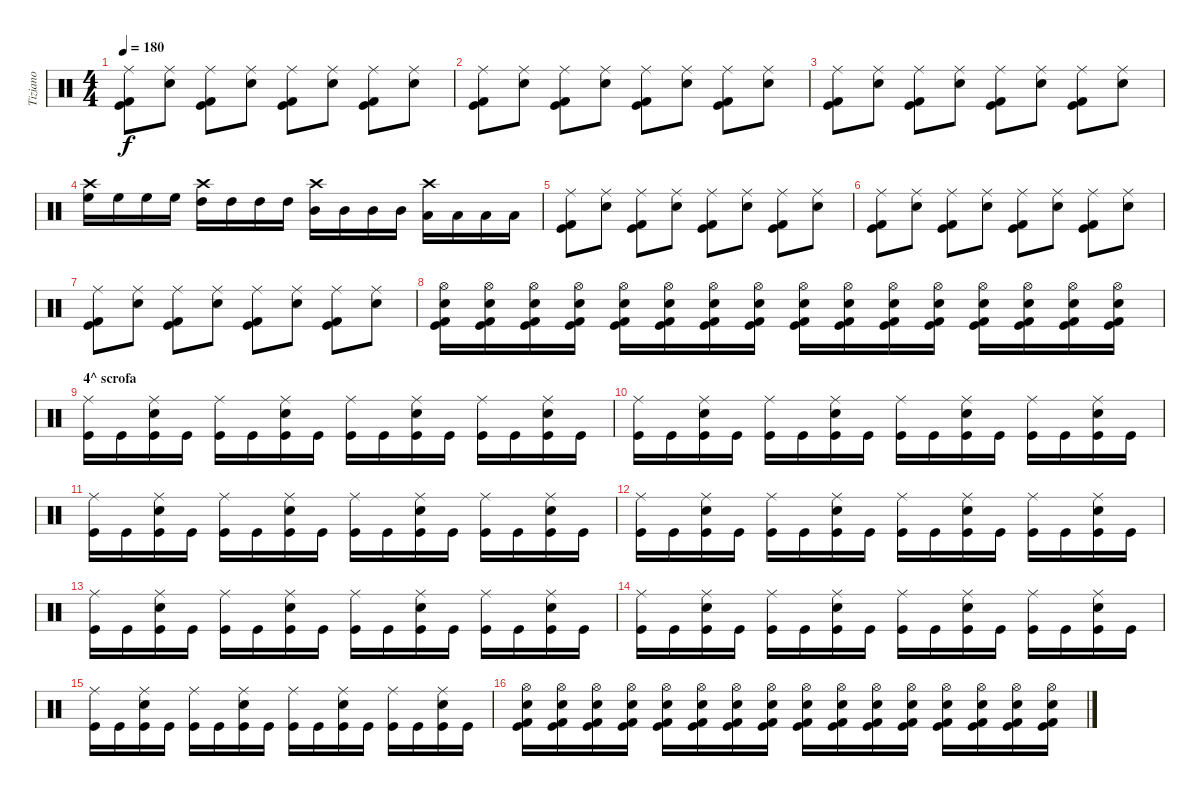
\track ("Tiziano" "Tiziano") {instrument percussion}
\staff {score}
\articulation defaults
\ts (4 4)
\tempo 180
\clef neutral
\ks c
("Kick (hit)" "Kick (hit) 2" "Ride (middle)").8{dy f} ("Snare (hit) 2" "Ride (middle)").8 ("Kick (hit)" "Kick (hit) 2" "Ride (middle)").8 ("Snare (hit) 2" "Ride (middle)").8 ("Kick (hit)" "Kick (hit) 2" "Ride (middle)").8 ("Snare (hit) 2" "Ride (middle)").8 ("Kick (hit)" "Kick (hit) 2" "Ride (middle)").8 ("Snare (hit) 2" "Ride (middle)").8 |
("Kick (hit)" "Kick (hit) 2" "Ride (middle)").8 ("Snare (hit) 2" "Ride (middle)").8 ("Kick (hit)" "Kick (hit) 2" "Ride (middle)").8 ("Snare (hit) 2" "Ride (middle)").8 ("Kick (hit)" "Kick (hit) 2" "Ride (middle)").8 ("Snare (hit) 2" "Ride (middle)").8 ("Kick (hit)" "Kick (hit) 2" "Ride (middle)").8 ("Snare (hit) 2" "Ride (middle)").8 |
("Kick (hit)" "Kick (hit) 2" "Ride (middle)").8 ("Snare (hit) 2" "Ride (middle)").8 ("Kick (hit)" "Kick (hit) 2" "Ride (middle)").8 ("Snare (hit) 2" "Ride (middle)").8 ("Kick (hit)" "Kick (hit) 2" "Ride (middle)").8 ("Snare (hit) 2" "Ride (middle)").8 ("Kick (hit)" "Kick (hit) 2" "Ride (middle)").8 ("Snare (hit) 2" "Ride (middle)").8 |
("High Floor Tom (hit)" "Crash high (hit)").16 "High Floor Tom (hit)".16 "High Floor Tom (hit)".16 "High Floor Tom (hit)".16 ("High Tom (hit)" "Crash high (hit)").16 "High Tom (hit)".16 "High Tom (hit)".16 "High Tom (hit)".16 ("Mid Tom (hit)" "Crash high (hit)").16 "Mid Tom (hit)".16 "Mid Tom (hit)".16 "Mid Tom (hit)".16 ("Low Tom (hit)" "Crash high (hit)").16 "Low Tom (hit)".16 "Low Tom (hit)".16 "Low Tom (hit)".16 |
("Kick (hit)" "Kick (hit) 2" "Ride (middle)").8 ("Snare (hit) 2" "Ride (middle)").8 ("Kick (hit)" "Kick (hit) 2" "Ride (middle)").8 ("Snare (hit) 2" "Ride (middle)").8 ("Kick (hit)" "Kick (hit) 2" "Ride (middle)").8 ("Snare (hit) 2" "Ride (middle)").8 ("Kick (hit)" "Kick (hit) 2" "Ride (middle)").8 ("Snare (hit) 2" "Ride (middle)").8 |
("Kick (hit)" "Kick (hit) 2" "Ride (middle)").8 ("Snare (hit) 2" "Ride (middle)").8 ("Kick (hit)" "Kick (hit) 2" "Ride (middle)").8 ("Snare (hit) 2" "Ride (middle)").8 ("Kick (hit)" "Kick (hit) 2" "Ride (middle)").8 ("Snare (hit) 2" "Ride (middle)").8 ("Kick (hit)" "Kick (hit) 2" "Ride (middle)").8 ("Snare (hit) 2" "Ride (middle)").8 |
("Kick (hit)" "Kick (hit) 2" "Ride (middle)").8 ("Snare (hit) 2" "Ride (middle)").8 ("Kick (hit)" "Kick (hit) 2" "Ride (middle)").8 ("Snare (hit) 2" "Ride (middle)").8 ("Kick (hit)" "Kick (hit) 2" "Ride (middle)").8 ("Snare (hit) 2" "Ride (middle)").8 ("Kick (hit)" "Kick (hit) 2" "Ride (middle)").8 ("Snare (hit) 2" "Ride (middle)").8 |
("Hi-Hat (open)" "Kick (hit)" "Kick (hit) 2" "Snare (hit) 2").16 ("Hi-Hat (open)" "Kick (hit)" "Kick (hit) 2" "Snare (hit) 2").16 ("Hi-Hat (open)" "Kick (hit)" "Kick (hit) 2" "Snare (hit) 2").16 ("Hi-Hat (open)" "Kick (hit)" "Kick (hit) 2" "Snare (hit) 2").16 ("Hi-Hat (open)" "Kick (hit)" "Kick (hit) 2" "Snare (hit) 2").16 ("Hi-Hat (open)" "Kick (hit)" "Kick (hit) 2" "Snare (hit) 2").16 ("Hi-Hat (open)" "Kick (hit)" "Kick (hit) 2" "Snare (hit) 2").16 ("Hi-Hat (open)" "Kick (hit)" "Kick (hit) 2" "Snare (hit) 2").16 ("Hi-Hat (open)" "Kick (hit)" "Kick (hit) 2" "Snare (hit) 2").16 ("Hi-Hat (open)" "Kick (hit)" "Kick (hit) 2" "Snare (hit) 2").16 ("Hi-Hat (open)" "Kick (hit)" "Kick (hit) 2" "Snare (hit) 2").16 ("Hi-Hat (open)" "Kick (hit)" "Kick (hit) 2" "Snare (hit) 2").16 ("Hi-Hat (open)" "Kick (hit)" "Kick (hit) 2" "Snare (hit) 2").16 ("Hi-Hat (open)" "Kick (hit)" "Kick (hit) 2" "Snare (hit) 2").16 ("Hi-Hat (open)" "Kick (hit)" "Kick (hit) 2" "Snare (hit) 2").16 ("Hi-Hat (open)" "Kick (hit)" "Kick (hit) 2" "Snare (hit) 2").16 |
\section ("" "4^ scrofa")
("Kick (hit)" "Ride (middle)").16 "Kick (hit)".16 ("Kick (hit)" "Snare (hit) 2" "Ride (middle)").16 "Kick (hit)".16 ("Kick (hit)" "Ride (middle)").16 "Kick (hit)".16 ("Kick (hit)" "Snare (hit) 2" "Ride (middle)").16 "Kick (hit)".16 ("Kick (hit)" "Ride (middle)").16 "Kick (hit)".16 ("Kick (hit)" "Snare (hit) 2" "Ride (middle)").16 "Kick (hit)".16 ("Kick (hit)" "Ride (middle)").16 "Kick (hit)".16 ("Kick (hit)" "Snare (hit) 2" "Ride (middle)").16 "Kick (hit)".16 |
("Kick (hit)" "Ride (middle)").16 "Kick (hit)".16 ("Kick (hit)" "Snare (hit) 2" "Ride (middle)").16 "Kick (hit)".16 ("Kick (hit)" "Ride (middle)").16 "Kick (hit)".16 ("Kick (hit)" "Snare (hit) 2" "Ride (middle)").16 "Kick (hit)".16 ("Kick (hit)" "Ride (middle)").16 "Kick (hit)".16 ("Kick (hit)" "Snare (hit) 2" "Ride (middle)").16 "Kick (hit)".16 ("Kick (hit)" "Ride (middle)").16 "Kick (hit)".16 ("Kick (hit)" "Snare (hit) 2" "Ride (middle)").16 "Kick (hit)".16 |
("Kick (hit)" "Ride (middle)").16 "Kick (hit)".16 ("Kick (hit)" "Snare (hit) 2" "Ride (middle)").16 "Kick (hit)".16 ("Kick (hit)" "Ride (middle)").16 "Kick (hit)".16 ("Kick (hit)" "Snare (hit) 2" "Ride (middle)").16 "Kick (hit)".16 ("Kick (hit)" "Ride (middle)").16 "Kick (hit)".16 ("Kick (hit)" "Snare (hit) 2" "Ride (middle)").16 "Kick (hit)".16 ("Kick (hit)" "Ride (middle)").16 "Kick (hit)".16 ("Kick (hit)" "Snare (hit) 2" "Ride (middle)").16 "Kick (hit)".16 |
("Kick (hit)" "Ride (middle)").16 "Kick (hit)".16 ("Kick (hit)" "Snare (hit) 2" "Ride (middle)").16 "Kick (hit)".16 ("Kick (hit)" "Ride (middle)").16 "Kick (hit)".16 ("Kick (hit)" "Snare (hit) 2" "Ride (middle)").16 "Kick (hit)".16 ("Kick (hit)" "Ride (middle)").16 "Kick (hit)".16 ("Kick (hit)" "Snare (hit) 2" "Ride (middle)").16 "Kick (hit)".16 ("Kick (hit)" "Ride (middle)").16 "Kick (hit)".16 ("Kick (hit)" "Snare (hit) 2" "Ride (middle)").16 "Kick (hit)".16 |
("Kick (hit)" "Ride (middle)").16 "Kick (hit)".16 ("Kick (hit)" "Snare (hit) 2" "Ride (middle)").16 "Kick (hit)".16 ("Kick (hit)" "Ride (middle)").16 "Kick (hit)".16 ("Kick (hit)" "Snare (hit) 2" "Ride (middle)").16 "Kick (hit)".16 ("Kick (hit)" "Ride (middle)").16 "Kick (hit)".16 ("Kick (hit)" "Snare (hit) 2" "Ride (middle)").16 "Kick (hit)".16 ("Kick (hit)" "Ride (middle)").16 "Kick (hit)".16 ("Kick (hit)" "Snare (hit) 2" "Ride (middle)").16 "Kick (hit)".16 |
("Kick (hit)" "Ride (middle)").16 "Kick (hit)".16 ("Kick (hit)" "Snare (hit) 2" "Ride (middle)").16 "Kick (hit)".16 ("Kick (hit)" "Ride (middle)").16 "Kick (hit)".16 ("Kick (hit)" "Snare (hit) 2" "Ride (middle)").16 "Kick (hit)".16 ("Kick (hit)" "Ride (middle)").16 "Kick (hit)".16 ("Kick (hit)" "Snare (hit) 2" "Ride (middle)").16 "Kick (hit)".16 ("Kick (hit)" "Ride (middle)").16 "Kick (hit)".16 ("Kick (hit)" "Snare (hit) 2" "Ride (middle)").16 "Kick (hit)".16 |
("Kick (hit)" "Ride (middle)").16 "Kick (hit)".16 ("Kick (hit)" "Snare (hit) 2" "Ride (middle)").16 "Kick (hit)".16 ("Kick (hit)" "Ride (middle)").16 "Kick (hit)".16 ("Kick (hit)" "Snare (hit) 2" "Ride (middle)").16 "Kick (hit)".16 ("Kick (hit)" "Ride (middle)").16 "Kick (hit)".16 ("Kick (hit)" "Snare (hit) 2" "Ride (middle)").16 "Kick (hit)".16 ("Kick (hit)" "Ride (middle)").16 "Kick (hit)".16 ("Kick (hit)" "Snare (hit) 2" "Ride (middle)").16 "Kick (hit)".16 |
("Hi-Hat (open)" "Kick (hit)" "Kick (hit) 2" "Snare (hit) 2").16 ("Hi-Hat (open)" "Kick (hit)" "Kick (hit) 2" "Snare (hit) 2").16 ("Hi-Hat (open)" "Kick (hit)" "Kick (hit) 2" "Snare (hit) 2").16 ("Hi-Hat (open)" "Kick (hit)" "Kick (hit) 2" "Snare (hit) 2").16 ("Hi-Hat (open)" "Kick (hit)" "Kick (hit) 2" "Snare (hit) 2").16 ("Hi-Hat (open)" "Kick (hit)" "Kick (hit) 2" "Snare (hit) 2").16 ("Hi-Hat (open)" "Kick (hit)" "Kick (hit) 2" "Snare (hit) 2").16 ("Hi-Hat (open)" "Kick (hit)" "Kick (hit) 2" "Snare (hit) 2").16 ("Hi-Hat (open)" "Kick (hit)" "Kick (hit) 2" "Snare (hit) 2").16 ("Hi-Hat (open)" "Kick (hit)" "Kick (hit) 2" "Snare (hit) 2").16 ("Hi-Hat (open)" "Kick (hit)" "Kick (hit) 2" "Snare (hit) 2").16 ("Hi-Hat (open)" "Kick (hit)" "Kick (hit) 2" "Snare (hit) 2").16 ("Hi-Hat (open)" "Kick (hit)" "Kick (hit) 2" "Snare (hit) 2").16 ("Hi-Hat (open)" "Kick (hit)" "Kick (hit) 2" "Snare (hit) 2").16 ("Hi-Hat (open)" "Kick (hit)" "Kick (hit) 2" "Snare (hit) 2").16 ("Hi-Hat (open)" "Kick (hit)" "Kick (hit) 2" "Snare (hit) 2").16
